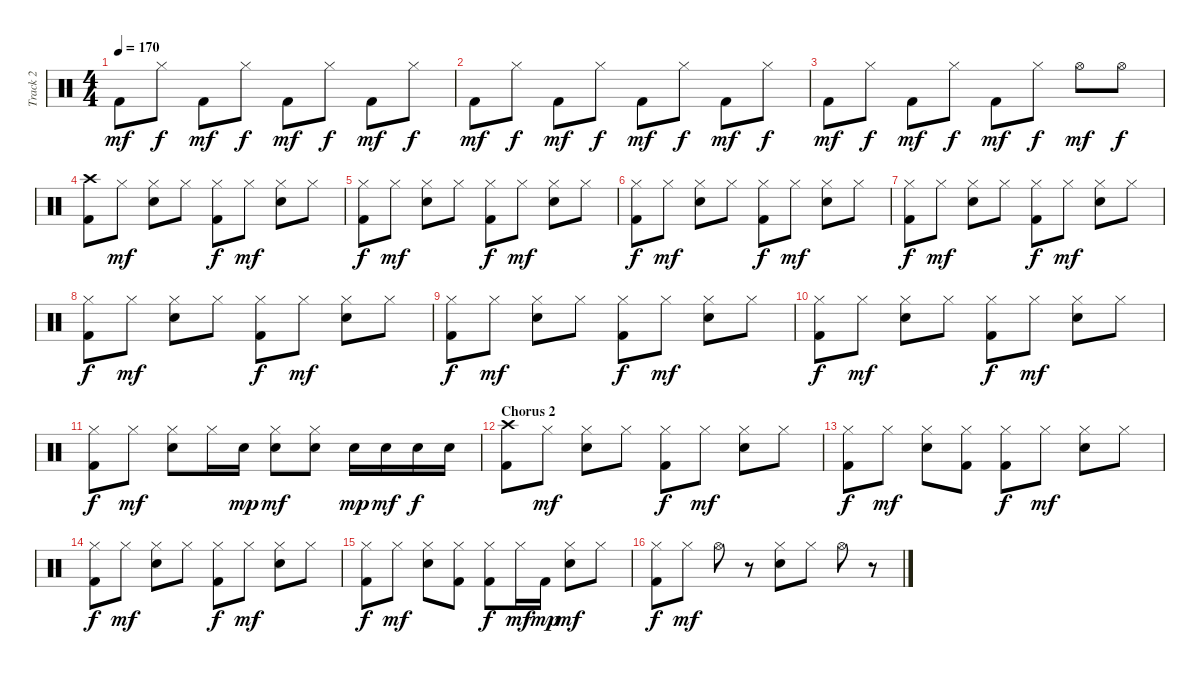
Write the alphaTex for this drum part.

\track ("Track 2" "Track 2") {instrument percussion}
\staff {score}
\articulation defaults
\ts (4 4)
\tempo 170
\clef neutral
\ks c "Kick (hit) 2".8{dy mf} "Hi-Hat (closed)".8{dy f} "Kick (hit) 2".8{dy mf} "Hi-Hat (closed)".8{dy f} "Kick (hit) 2".8{dy mf} "Hi-Hat (closed)".8{dy f} "Kick (hit) 2".8{dy mf} "Hi-Hat (closed)".8{dy f}
|
"Kick (hit) 2".8{dy mf} "Hi-Hat (closed)".8{dy f} "Kick (hit) 2".8{dy mf} "Hi-Hat (closed)".8{dy f} "Kick (hit) 2".8{dy mf} "Hi-Hat (closed)".8{dy f} "Kick (hit) 2".8{dy mf} "Hi-Hat (closed)".8{dy f} |
"Kick (hit) 2".8{dy mf} "Hi-Hat (closed)".8{dy f} "Kick (hit) 2".8{dy mf} "Hi-Hat (closed)".8{dy f} "Kick (hit) 2".8{dy mf} "Hi-Hat (closed)".8{dy f} "Hi-Hat (open)".8{dy mf} "Hi-Hat (open)".8{dy f} |
("Crash high (hit)" "Kick (hit) 2").8 "Hi-Hat (closed)".8{dy mf} ("Hi-Hat (closed)" "Electric Snare (hit)").8 "Hi-Hat (closed)".8 ("Hi-Hat (closed)" "Kick (hit) 2").8{dy f} "Hi-Hat (closed)".8{dy mf} ("Hi-Hat (closed)" "Electric Snare (hit)").8 "Hi-Hat (closed)".8 |
("Hi-Hat (closed)" "Kick (hit) 2").8{dy f} "Hi-Hat (closed)".8{dy mf} ("Hi-Hat (closed)" "Electric Snare (hit)").8 "Hi-Hat (closed)".8 ("Hi-Hat (closed)" "Kick (hit) 2").8{dy f} "Hi-Hat (closed)".8{dy mf} ("Hi-Hat (closed)" "Electric Snare (hit)").8 "Hi-Hat (closed)".8 |
("Hi-Hat (closed)" "Kick (hit) 2").8{dy f} "Hi-Hat (closed)".8{dy mf} ("Hi-Hat (closed)" "Electric Snare (hit)").8 "Hi-Hat (closed)".8 ("Hi-Hat (closed)" "Kick (hit) 2").8{dy f} "Hi-Hat (closed)".8{dy mf} ("Hi-Hat (closed)" "Electric Snare (hit)").8 "Hi-Hat (closed)".8 |
("Hi-Hat (closed)" "Kick (hit) 2").8{dy f} "Hi-Hat (closed)".8{dy mf} ("Hi-Hat (closed)" "Electric Snare (hit)").8 "Hi-Hat (closed)".8 ("Hi-Hat (closed)" "Kick (hit) 2").8{dy f} "Hi-Hat (closed)".8{dy mf} ("Hi-Hat (closed)" "Electric Snare (hit)").8 "Hi-Hat (closed)".8 |
("Hi-Hat (closed)" "Kick (hit) 2").8{dy f} "Hi-Hat (closed)".8{dy mf} ("Hi-Hat (closed)" "Electric Snare (hit)").8 "Hi-Hat (closed)".8 ("Hi-Hat (closed)" "Kick (hit) 2").8{dy f} "Hi-Hat (closed)".8{dy mf} ("Hi-Hat (closed)" "Electric Snare (hit)").8 "Hi-Hat (closed)".8 |
("Hi-Hat (closed)" "Kick (hit) 2").8{dy f} "Hi-Hat (closed)".8{dy mf} ("Hi-Hat (closed)" "Electric Snare (hit)").8 "Hi-Hat (closed)".8 ("Hi-Hat (closed)" "Kick (hit) 2").8{dy f} "Hi-Hat (closed)".8{dy mf} ("Hi-Hat (closed)" "Electric Snare (hit)").8 "Hi-Hat (closed)".8 |
("Hi-Hat (closed)" "Kick (hit) 2").8{dy f} "Hi-Hat (closed)".8{dy mf} ("Hi-Hat (closed)" "Electric Snare (hit)").8 "Hi-Hat (closed)".8 ("Hi-Hat (closed)" "Kick (hit) 2").8{dy f} "Hi-Hat (closed)".8{dy mf} ("Hi-Hat (closed)" "Electric Snare (hit)").8 "Hi-Hat (closed)".8 |
("Hi-Hat (closed)" "Kick (hit) 2").8{dy f} "Hi-Hat (closed)".8{dy mf} ("Hi-Hat (closed)" "Electric Snare (hit)").8 "Hi-Hat (closed)".16 "Electric Snare (hit)".16{dy mp} ("Hi-Hat (closed)" "Electric Snare (hit)").8{dy mf} ("Hi-Hat (closed)" "Electric Snare (hit)").8 "Electric Snare (hit)".16{dy mp} "Electric Snare (hit)".16{dy mf} "Electric Snare (hit)".16{dy f} "Electric Snare (hit)".16 |
\section ("" "Chorus 2")
("Crash high (hit)" "Kick (hit) 2").8 "Hi-Hat (closed)".8{dy mf} ("Hi-Hat (closed)" "Electric Snare (hit)").8 "Hi-Hat (closed)".8 ("Hi-Hat (closed)" "Kick (hit) 2").8{dy f} "Hi-Hat (closed)".8{dy mf} ("Hi-Hat (closed)" "Electric Snare (hit)").8 "Hi-Hat (closed)".8 |
("Hi-Hat (closed)" "Kick (hit) 2").8{dy f} "Hi-Hat (closed)".8{dy mf} ("Hi-Hat (closed)" "Electric Snare (hit)").8 ("Hi-Hat (closed)" "Kick (hit) 2").8 ("Hi-Hat (closed)" "Kick (hit) 2").8{dy f} "Hi-Hat (closed)".8{dy mf} ("Hi-Hat (closed)" "Electric Snare (hit)").8 "Hi-Hat (closed)".8 |
("Hi-Hat (closed)" "Kick (hit) 2").8{dy f} "Hi-Hat (closed)".8{dy mf} ("Hi-Hat (closed)" "Electric Snare (hit)").8 "Hi-Hat (closed)".8 ("Hi-Hat (closed)" "Kick (hit) 2").8{dy f} "Hi-Hat (closed)".8{dy mf} ("Hi-Hat (closed)" "Electric Snare (hit)").8 "Hi-Hat (closed)".8 |
("Hi-Hat (closed)" "Kick (hit) 2").8{dy f} "Hi-Hat (closed)".8{dy mf} ("Hi-Hat (closed)" "Electric Snare (hit)").8 ("Hi-Hat (closed)" "Kick (hit) 2").8 ("Hi-Hat (closed)" "Kick (hit) 2").8{dy f} "Hi-Hat (closed)".16{dy mf} "Kick (hit) 2".16{dy mp} ("Hi-Hat (closed)" "Electric Snare (hit)").8{dy mf} "Hi-Hat (closed)".8 |
("Hi-Hat (closed)" "Kick (hit) 2").8{dy f} "Hi-Hat (closed)".8{dy mf} "Hi-Hat (open)".8 r.8 ("Hi-Hat (closed)" "Electric Snare (hit)").8 "Hi-Hat (closed)".8 "Hi-Hat (open)".8 r.8
